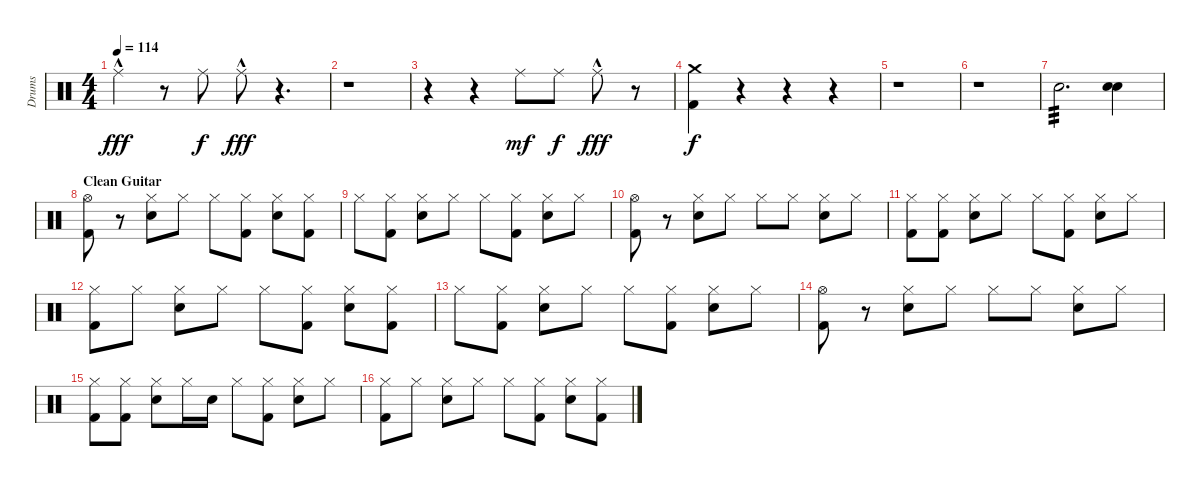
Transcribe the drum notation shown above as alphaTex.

\track ("Drums" "Drums") {instrument percussion}
\staff {score}
\articulation defaults
\ts (4 4)
\tempo 114
\clef neutral
\ks c "Ride (middle)"{hac}.4{dy fff}
r.8 "Ride (middle)".8{dy f} "Ride (middle)"{hac}.8{dy fff} r.4{d} |
r.1 |
r.4 r.4 "Ride (middle)".8{dy mf} "Ride (middle)".8{dy f} "Ride (middle)"{hac}.8{dy fff} r.8 |
("Crash medium (hit)" "Kick (hit) 2").4{dy f} r.4 r.4 r.4 |
r.1 |
r.1{volume 5} |
"Electric Snare (hit)".2{d tp 3 volume 16} ("Electric Snare (hit)" "Electric Snare (hit)").4{volume 16} |
\section ("" "Clean Guitar")
("Hi-Hat (open)" "Kick (hit) 2").8 r.8 ("Hi-Hat (closed)" "Electric Snare (hit)").8 "Hi-Hat (closed)".8 "Hi-Hat (closed)".8 ("Hi-Hat (closed)" "Kick (hit) 2").8 ("Hi-Hat (closed)" "Electric Snare (hit)").8 ("Hi-Hat (closed)" "Kick (hit) 2").8 |
"Hi-Hat (closed)".8 ("Hi-Hat (closed)" "Kick (hit) 2").8 ("Hi-Hat (closed)" "Electric Snare (hit)").8 "Hi-Hat (closed)".8 "Hi-Hat (closed)".8 ("Hi-Hat (closed)" "Kick (hit) 2").8 ("Hi-Hat (closed)" "Electric Snare (hit)").8 "Hi-Hat (closed)".8 |
("Hi-Hat (open)" "Kick (hit) 2").8 r.8 ("Hi-Hat (closed)" "Electric Snare (hit)").8 "Hi-Hat (closed)".8 "Hi-Hat (closed)".8 "Hi-Hat (closed)".8 ("Hi-Hat (closed)" "Electric Snare (hit)").8 "Hi-Hat (closed)".8 |
("Hi-Hat (closed)" "Kick (hit) 2").8 ("Hi-Hat (closed)" "Kick (hit) 2").8 ("Hi-Hat (closed)" "Electric Snare (hit)").8 "Hi-Hat (closed)".8 "Hi-Hat (closed)".8 ("Hi-Hat (closed)" "Kick (hit) 2").8 ("Hi-Hat (closed)" "Electric Snare (hit)").8 "Hi-Hat (closed)".8 |
("Hi-Hat (closed)" "Kick (hit) 2").8 "Hi-Hat (closed)".8 ("Hi-Hat (closed)" "Electric Snare (hit)").8 "Hi-Hat (closed)".8 "Hi-Hat (closed)".8 ("Hi-Hat (closed)" "Kick (hit) 2").8 ("Hi-Hat (closed)" "Electric Snare (hit)").8 ("Hi-Hat (closed)" "Kick (hit) 2").8 |
"Hi-Hat (closed)".8 ("Hi-Hat (closed)" "Kick (hit) 2").8 ("Hi-Hat (closed)" "Electric Snare (hit)").8 "Hi-Hat (closed)".8 "Hi-Hat (closed)".8 ("Hi-Hat (closed)" "Kick (hit) 2").8 ("Hi-Hat (closed)" "Electric Snare (hit)").8 "Hi-Hat (closed)".8 |
("Hi-Hat (open)" "Kick (hit) 2").8 r.8 ("Hi-Hat (closed)" "Electric Snare (hit)").8 "Hi-Hat (closed)".8 "Hi-Hat (closed)".8 "Hi-Hat (closed)".8 ("Hi-Hat (closed)" "Electric Snare (hit)").8 "Hi-Hat (closed)".8 |
("Hi-Hat (closed)" "Kick (hit) 2").8 ("Hi-Hat (closed)" "Kick (hit) 2").8 ("Hi-Hat (closed)" "Electric Snare (hit)").8 "Hi-Hat (closed)".16 "Electric Snare (hit)".16 "Hi-Hat (closed)".8 ("Hi-Hat (closed)" "Kick (hit) 2").8 ("Hi-Hat (closed)" "Electric Snare (hit)").8 "Hi-Hat (closed)".8 |
("Hi-Hat (closed)" "Kick (hit) 2").8 "Hi-Hat (closed)".8 ("Hi-Hat (closed)" "Electric Snare (hit)").8 "Hi-Hat (closed)".8 "Hi-Hat (closed)".8 ("Hi-Hat (closed)" "Kick (hit) 2").8 ("Hi-Hat (closed)" "Electric Snare (hit)").8 ("Hi-Hat (closed)" "Kick (hit) 2").8
